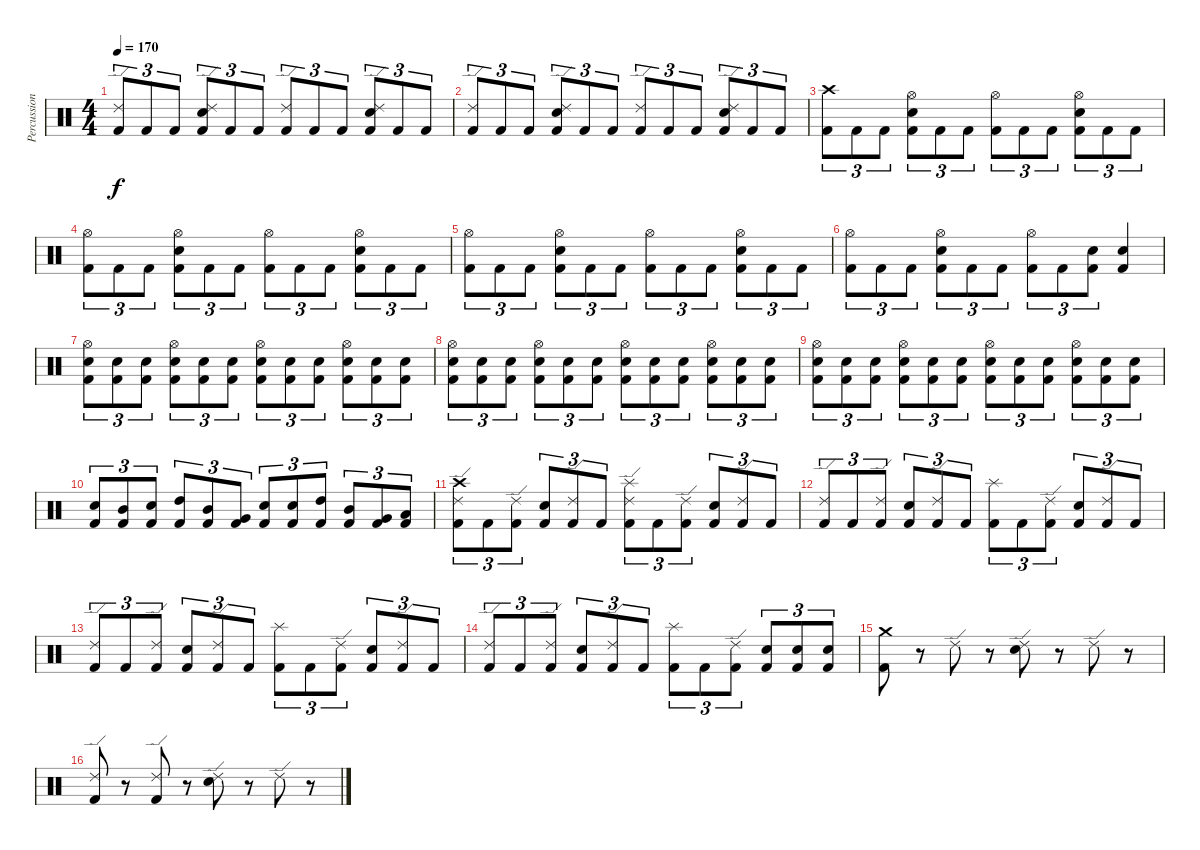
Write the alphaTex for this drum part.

\track ("Percussioni" "Percussion") {instrument percussion}
\staff {score}
\articulation defaults
\ts (4 4)
\tempo 170
\clef neutral
\ks c
("Ride (edge) 2" "Kick (hit) 2").8{tu (3 2) dy f} "Kick (hit) 2".8{tu (3 2)} "Kick (hit) 2".8{tu (3 2)} ("Ride (edge) 2" "Snare (hit) 2" "Kick (hit) 2").8{tu (3 2)} "Kick (hit) 2".8{tu (3 2)} "Kick (hit) 2".8{tu (3 2)} ("Ride (edge) 2" "Kick (hit) 2").8{tu (3 2)} "Kick (hit) 2".8{tu (3 2)} "Kick (hit) 2".8{tu (3 2)} ("Ride (edge) 2" "Snare (hit) 2" "Kick (hit) 2").8{tu (3 2)} "Kick (hit) 2".8{tu (3 2)} "Kick (hit) 2".8{tu (3 2)} |
("Ride (edge) 2" "Kick (hit) 2").8{tu (3 2)} "Kick (hit) 2".8{tu (3 2)} "Kick (hit) 2".8{tu (3 2)} ("Ride (edge) 2" "Snare (hit) 2" "Kick (hit) 2").8{tu (3 2)} "Kick (hit) 2".8{tu (3 2)} "Kick (hit) 2".8{tu (3 2)} ("Ride (edge) 2" "Kick (hit) 2").8{tu (3 2)} "Kick (hit) 2".8{tu (3 2)} "Kick (hit) 2".8{tu (3 2)} ("Ride (edge) 2" "Snare (hit) 2" "Kick (hit) 2").8{tu (3 2)} "Kick (hit) 2".8{tu (3 2)} "Kick (hit) 2".8{tu (3 2)} |
("Crash high (hit)" "Kick (hit) 2").8{tu (3 2)} "Kick (hit) 2".8{tu (3 2)} "Kick (hit) 2".8{tu (3 2)} ("Hi-Hat (open)" "Snare (hit) 2" "Kick (hit) 2").8{tu (3 2)} "Kick (hit) 2".8{tu (3 2)} "Kick (hit) 2".8{tu (3 2)} ("Hi-Hat (open)" "Kick (hit) 2").8{tu (3 2)} "Kick (hit) 2".8{tu (3 2)} "Kick (hit) 2".8{tu (3 2)} ("Hi-Hat (open)" "Snare (hit) 2" "Kick (hit) 2").8{tu (3 2)} "Kick (hit) 2".8{tu (3 2)} "Kick (hit) 2".8{tu (3 2)} |
("Hi-Hat (open)" "Kick (hit) 2").8{tu (3 2)} "Kick (hit) 2".8{tu (3 2)} "Kick (hit) 2".8{tu (3 2)} ("Hi-Hat (open)" "Snare (hit) 2" "Kick (hit) 2").8{tu (3 2)} "Kick (hit) 2".8{tu (3 2)} "Kick (hit) 2".8{tu (3 2)} ("Hi-Hat (open)" "Kick (hit) 2").8{tu (3 2)} "Kick (hit) 2".8{tu (3 2)} "Kick (hit) 2".8{tu (3 2)} ("Hi-Hat (open)" "Snare (hit) 2" "Kick (hit) 2").8{tu (3 2)} "Kick (hit) 2".8{tu (3 2)} "Kick (hit) 2".8{tu (3 2)} |
("Hi-Hat (open)" "Kick (hit) 2").8{tu (3 2)} "Kick (hit) 2".8{tu (3 2)} "Kick (hit) 2".8{tu (3 2)} ("Hi-Hat (open)" "Snare (hit) 2" "Kick (hit) 2").8{tu (3 2)} "Kick (hit) 2".8{tu (3 2)} "Kick (hit) 2".8{tu (3 2)} ("Hi-Hat (open)" "Kick (hit) 2").8{tu (3 2)} "Kick (hit) 2".8{tu (3 2)} "Kick (hit) 2".8{tu (3 2)} ("Hi-Hat (open)" "Snare (hit) 2" "Kick (hit) 2").8{tu (3 2)} "Kick (hit) 2".8{tu (3 2)} "Kick (hit) 2".8{tu (3 2)} |
("Hi-Hat (open)" "Kick (hit) 2").8{tu (3 2)} "Kick (hit) 2".8{tu (3 2)} "Kick (hit) 2".8{tu (3 2)} ("Hi-Hat (open)" "Snare (hit) 2" "Kick (hit) 2").8{tu (3 2)} "Kick (hit) 2".8{tu (3 2)} "Kick (hit) 2".8{tu (3 2)} ("Hi-Hat (open)" "Kick (hit) 2").8{tu (3 2)} "Kick (hit) 2".8{tu (3 2)} ("Snare (hit) 2" "Kick (hit) 2").8{tu (3 2)} ("Snare (hit) 2" "Kick (hit) 2").4 |
("Hi-Hat (open)" "Snare (hit) 2" "Kick (hit) 2").8{tu (3 2)} ("Snare (hit) 2" "Kick (hit) 2").8{tu (3 2)} ("Snare (hit) 2" "Kick (hit) 2").8{tu (3 2)} ("Hi-Hat (open)" "Snare (hit) 2" "Kick (hit) 2").8{tu (3 2)} ("Snare (hit) 2" "Kick (hit) 2").8{tu (3 2)} ("Snare (hit) 2" "Kick (hit) 2").8{tu (3 2)} ("Hi-Hat (open)" "Snare (hit) 2" "Kick (hit) 2").8{tu (3 2)} ("Snare (hit) 2" "Kick (hit) 2").8{tu (3 2)} ("Snare (hit) 2" "Kick (hit) 2").8{tu (3 2)} ("Hi-Hat (open)" "Snare (hit) 2" "Kick (hit) 2").8{tu (3 2)} ("Snare (hit) 2" "Kick (hit) 2").8{tu (3 2)} ("Snare (hit) 2" "Kick (hit) 2").8{tu (3 2)} |
("Hi-Hat (open)" "Snare (hit) 2" "Kick (hit) 2").8{tu (3 2)} ("Snare (hit) 2" "Kick (hit) 2").8{tu (3 2)} ("Snare (hit) 2" "Kick (hit) 2").8{tu (3 2)} ("Hi-Hat (open)" "Snare (hit) 2" "Kick (hit) 2").8{tu (3 2)} ("Snare (hit) 2" "Kick (hit) 2").8{tu (3 2)} ("Snare (hit) 2" "Kick (hit) 2").8{tu (3 2)} ("Hi-Hat (open)" "Snare (hit) 2" "Kick (hit) 2").8{tu (3 2)} ("Snare (hit) 2" "Kick (hit) 2").8{tu (3 2)} ("Snare (hit) 2" "Kick (hit) 2").8{tu (3 2)} ("Hi-Hat (open)" "Snare (hit) 2" "Kick (hit) 2").8{tu (3 2)} ("Snare (hit) 2" "Kick (hit) 2").8{tu (3 2)} ("Snare (hit) 2" "Kick (hit) 2").8{tu (3 2)} |
("Hi-Hat (open)" "Snare (hit) 2" "Kick (hit) 2").8{tu (3 2)} ("Snare (hit) 2" "Kick (hit) 2").8{tu (3 2)} ("Snare (hit) 2" "Kick (hit) 2").8{tu (3 2)} ("Hi-Hat (open)" "Snare (hit) 2" "Kick (hit) 2").8{tu (3 2)} ("Snare (hit) 2" "Kick (hit) 2").8{tu (3 2)} ("Snare (hit) 2" "Kick (hit) 2").8{tu (3 2)} ("Hi-Hat (open)" "Snare (hit) 2" "Kick (hit) 2").8{tu (3 2)} ("Snare (hit) 2" "Kick (hit) 2").8{tu (3 2)} ("Snare (hit) 2" "Kick (hit) 2").8{tu (3 2)} ("Hi-Hat (open)" "Snare (hit) 2" "Kick (hit) 2").8{tu (3 2)} ("Snare (hit) 2" "Kick (hit) 2").8{tu (3 2)} ("Snare (hit) 2" "Kick (hit) 2").8{tu (3 2)} |
("Snare (hit) 2" "Kick (hit) 2").8{tu (3 2)} ("Mid Tom (hit)" "Kick (hit) 2").8{tu (3 2)} ("Snare (hit) 2" "Kick (hit) 2").8{tu (3 2)} ("High Tom (hit)" "Kick (hit) 2").8{tu (3 2)} ("Mid Tom (hit)" "Kick (hit) 2").8{tu (3 2)} ("Very Low Tom (hit)" "Kick (hit) 2").8{tu (3 2)} ("Snare (hit) 2" "Kick (hit) 2").8{tu (3 2)} ("Snare (hit) 2" "Kick (hit) 2").8{tu (3 2)} ("High Tom (hit)" "Kick (hit) 2").8{tu (3 2)} ("Mid Tom (hit)" "Kick (hit) 2").8{tu (3 2)} ("Very Low Tom (hit)" "Kick (hit) 2").8{tu (3 2)} ("Low Floor Tom (hit)" "Kick (hit) 2").8{tu (3 2)} |
("Crash high (hit)" "Ride (edge) 2" "Kick (hit) 2").8{tu (3 2)} "Kick (hit) 2".8{tu (3 2)} ("Ride (edge) 2" "Kick (hit) 2").8{tu (3 2)} ("Snare (hit) 2" "Kick (hit) 2").8{tu (3 2)} ("Ride (edge) 2" "Kick (hit) 2").8{tu (3 2)} "Kick (hit) 2".8{tu (3 2)} ("Splash (hit)" "Ride (edge) 2" "Kick (hit) 2").8{tu (3 2)} "Kick (hit) 2".8{tu (3 2)} ("Ride (edge) 2" "Kick (hit) 2").8{tu (3 2)} ("Snare (hit) 2" "Kick (hit) 2").8{tu (3 2)} ("Ride (edge) 2" "Kick (hit) 2").8{tu (3 2)} "Kick (hit) 2".8{tu (3 2)} |
("Ride (edge) 2" "Kick (hit) 2").8{tu (3 2)} "Kick (hit) 2".8{tu (3 2)} ("Ride (edge) 2" "Kick (hit) 2").8{tu (3 2)} ("Snare (hit) 2" "Kick (hit) 2").8{tu (3 2)} ("Ride (edge) 2" "Kick (hit) 2").8{tu (3 2)} "Kick (hit) 2".8{tu (3 2)} ("Splash (hit)" "Kick (hit) 2").8{tu (3 2)} "Kick (hit) 2".8{tu (3 2)} ("Ride (edge) 2" "Kick (hit) 2").8{tu (3 2)} ("Snare (hit) 2" "Kick (hit) 2").8{tu (3 2)} ("Ride (edge) 2" "Kick (hit) 2").8{tu (3 2)} "Kick (hit) 2".8{tu (3 2)} |
("Ride (edge) 2" "Kick (hit) 2").8{tu (3 2)} "Kick (hit) 2".8{tu (3 2)} ("Ride (edge) 2" "Kick (hit) 2").8{tu (3 2)} ("Snare (hit) 2" "Kick (hit) 2").8{tu (3 2)} ("Ride (edge) 2" "Kick (hit) 2").8{tu (3 2)} "Kick (hit) 2".8{tu (3 2)} ("Splash (hit)" "Kick (hit) 2").8{tu (3 2)} "Kick (hit) 2".8{tu (3 2)} ("Ride (edge) 2" "Kick (hit) 2").8{tu (3 2)} ("Snare (hit) 2" "Kick (hit) 2").8{tu (3 2)} ("Ride (edge) 2" "Kick (hit) 2").8{tu (3 2)} "Kick (hit) 2".8{tu (3 2)} |
("Ride (edge) 2" "Kick (hit) 2").8{tu (3 2)} "Kick (hit) 2".8{tu (3 2)} ("Ride (edge) 2" "Kick (hit) 2").8{tu (3 2)} ("Snare (hit) 2" "Kick (hit) 2").8{tu (3 2)} ("Ride (edge) 2" "Kick (hit) 2").8{tu (3 2)} "Kick (hit) 2".8{tu (3 2)} ("Splash (hit)" "Kick (hit) 2").8{tu (3 2)} "Kick (hit) 2".8{tu (3 2)} ("Ride (edge) 2" "Kick (hit) 2").8{tu (3 2)} ("Snare (hit) 2" "Kick (hit) 2").8{tu (3 2)} ("Snare (hit) 2" "Kick (hit) 2").8{tu (3 2)} ("Snare (hit) 2" "Kick (hit) 2").8{tu (3 2)} |
("Crash medium (hit)" "Kick (hit) 2").8 r.8 "Ride (edge) 2".8 r.8 ("Ride (edge) 2" "Snare (hit) 2").8 r.8 "Ride (edge) 2".8 r.8 |
("Ride (edge) 2" "Kick (hit) 2").8 r.8 ("Ride (edge) 2" "Kick (hit) 2").8 r.8 ("Ride (edge) 2" "Snare (hit) 2").8 r.8 "Ride (edge) 2".8 r.8
